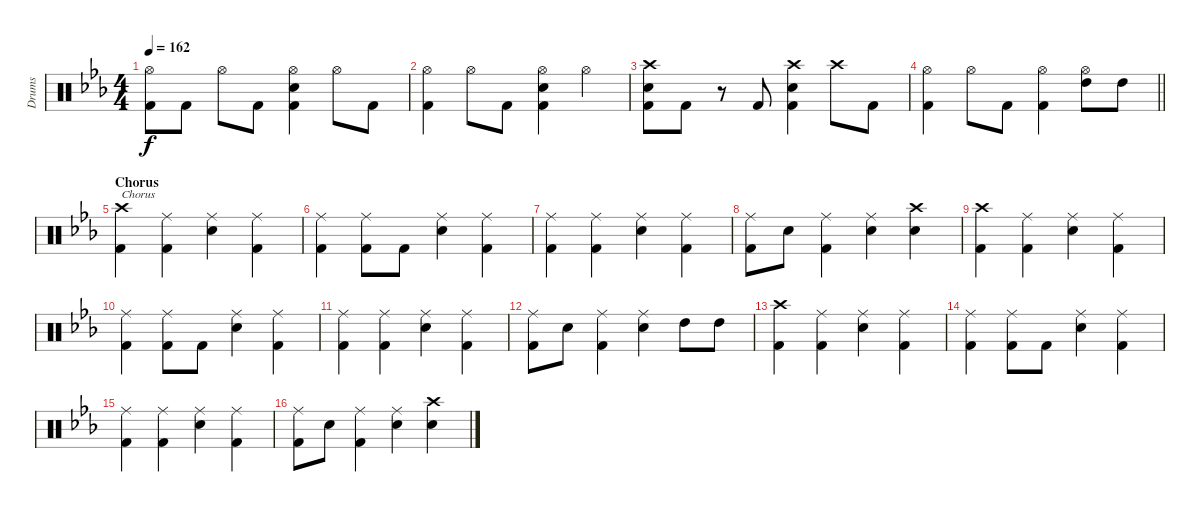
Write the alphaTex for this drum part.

\track ("Drums" "Drums") {instrument percussion}
\staff {score}
\articulation defaults
\ts (4 4)
\tempo 162
\clef neutral
\ks eb
("Hi-Hat (open)" "Kick (hit) 2").8{dy f} "Kick (hit) 2".8 "Hi-Hat (open)".8 "Kick (hit) 2".8 ("Hi-Hat (open)" "Electric Snare (hit)" "Kick (hit) 2").4 "Hi-Hat (open)".8 "Kick (hit) 2".8 |
("Hi-Hat (open)" "Kick (hit) 2").4 "Hi-Hat (open)".8 "Kick (hit) 2".8 ("Hi-Hat (open)" "Electric Snare (hit)" "Kick (hit) 2").4 "Hi-Hat (open)".4 |
("Crash high (hit)" "Electric Snare (hit)" "Kick (hit) 2").8 "Kick (hit) 2".8 r.8 "Kick (hit) 2".8 ("Crash high (hit)" "Electric Snare (hit)" "Kick (hit) 2").4 "Crash high (hit)".8 "Kick (hit) 2".8 |
\barLineRight lightlight
("Hi-Hat (open)" "Kick (hit) 2").4 "Hi-Hat (open)".8 "Kick (hit) 2".8 ("Hi-Hat (open)" "Kick (hit) 2").4 ("Hi-Hat (open)" "High Tom (hit)").8 "High Tom (hit)".8 |
\section ("" "Chorus")
("Crash high (hit)" "Kick (hit) 2").4{txt "Chorus"} ("Ride (middle)" "Kick (hit) 2").4 ("Ride (middle)" "Electric Snare (hit)").4 ("Ride (middle)" "Kick (hit) 2").4 |
("Ride (middle)" "Kick (hit) 2").4 ("Ride (middle)" "Kick (hit) 2").8 "Kick (hit) 2".8 ("Ride (middle)" "Electric Snare (hit)").4 ("Ride (middle)" "Kick (hit) 2").4 |
("Ride (middle)" "Kick (hit) 2").4 ("Ride (middle)" "Kick (hit) 2").4 ("Ride (middle)" "Electric Snare (hit)").4 ("Ride (middle)" "Kick (hit) 2").4 |
("Ride (middle)" "Kick (hit) 2").8 "Electric Snare (hit)".8 ("Ride (middle)" "Kick (hit) 2").4 ("Ride (middle)" "Electric Snare (hit)").4 ("Crash high (hit)" "Electric Snare (hit)").4 |
("Crash high (hit)" "Kick (hit) 2").4 ("Ride (middle)" "Kick (hit) 2").4 ("Ride (middle)" "Electric Snare (hit)").4 ("Ride (middle)" "Kick (hit) 2").4 |
("Ride (middle)" "Kick (hit) 2").4 ("Ride (middle)" "Kick (hit) 2").8 "Kick (hit) 2".8 ("Ride (middle)" "Electric Snare (hit)").4 ("Ride (middle)" "Kick (hit) 2").4 |
("Ride (middle)" "Kick (hit) 2").4 ("Ride (middle)" "Kick (hit) 2").4 ("Ride (middle)" "Electric Snare (hit)").4 ("Ride (middle)" "Kick (hit) 2").4 |
("Ride (middle)" "Kick (hit) 2").8 "Electric Snare (hit)".8 ("Ride (middle)" "Kick (hit) 2").4 ("Ride (middle)" "Electric Snare (hit)").4 "High Tom (hit)".8 "High Tom (hit)".8 |
("Crash high (hit)" "Kick (hit) 2").4 ("Ride (middle)" "Kick (hit) 2").4 ("Ride (middle)" "Electric Snare (hit)").4 ("Ride (middle)" "Kick (hit) 2").4 |
("Ride (middle)" "Kick (hit) 2").4 ("Ride (middle)" "Kick (hit) 2").8 "Kick (hit) 2".8 ("Ride (middle)" "Electric Snare (hit)").4 ("Ride (middle)" "Kick (hit) 2").4 |
("Ride (middle)" "Kick (hit) 2").4 ("Ride (middle)" "Kick (hit) 2").4 ("Ride (middle)" "Electric Snare (hit)").4 ("Ride (middle)" "Kick (hit) 2").4 |
("Ride (middle)" "Kick (hit) 2").8 "Electric Snare (hit)".8 ("Ride (middle)" "Kick (hit) 2").4 ("Ride (middle)" "Electric Snare (hit)").4 ("Crash high (hit)" "Electric Snare (hit)").4
